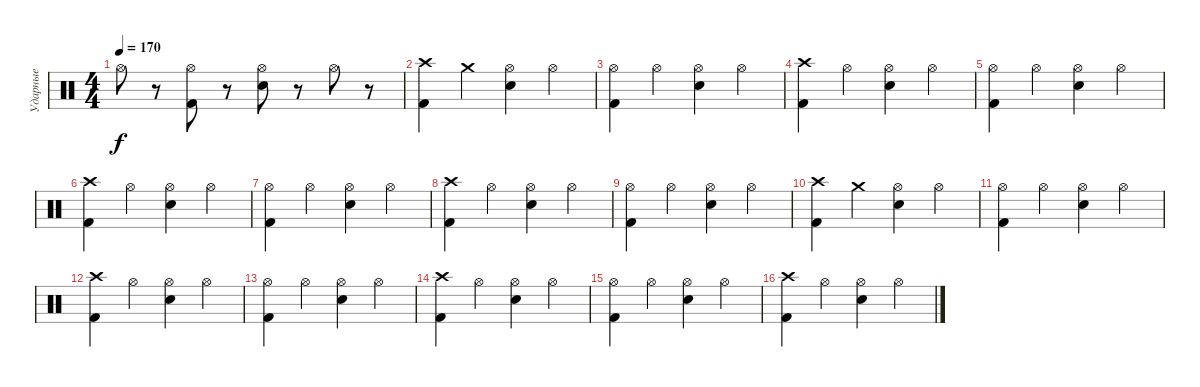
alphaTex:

\track ("Ударные" "Ударные") {instrument percussion}
\staff {score}
\articulation defaults
\ts (4 4)
\tempo 170
\clef neutral
\ks c "Hi-Hat (open)".8{dy f}
r.8 ("Hi-Hat (open)" "Kick (hit) 2").8 r.8 ("Hi-Hat (open)" "Electric Snare (hit)").8 r.8 "Hi-Hat (open)".8 r.8 |
("Crash high (hit)" "Kick (hit) 2").4 "Crash medium (hit)".4 ("Hi-Hat (open)" "Electric Snare (hit)").4 "Hi-Hat (open)".4 |
("Hi-Hat (open)" "Kick (hit) 2").4 "Hi-Hat (open)".4 ("Hi-Hat (open)" "Electric Snare (hit)").4 "Hi-Hat (open)".4 |
("Crash high (hit)" "Kick (hit) 2").4 "Hi-Hat (open)".4 ("Hi-Hat (open)" "Electric Snare (hit)").4 "Hi-Hat (open)".4 |
("Hi-Hat (open)" "Kick (hit) 2").4 "Hi-Hat (open)".4 ("Hi-Hat (open)" "Electric Snare (hit)").4 "Hi-Hat (open)".4 |
("Crash high (hit)" "Kick (hit) 2").4 "Hi-Hat (open)".4 ("Hi-Hat (open)" "Electric Snare (hit)").4 "Hi-Hat (open)".4 |
("Hi-Hat (open)" "Kick (hit) 2").4 "Hi-Hat (open)".4 ("Hi-Hat (open)" "Electric Snare (hit)").4 "Hi-Hat (open)".4 |
("Crash high (hit)" "Kick (hit) 2").4 "Hi-Hat (open)".4 ("Hi-Hat (open)" "Electric Snare (hit)").4 "Hi-Hat (open)".4 |
("Hi-Hat (open)" "Kick (hit) 2").4 "Hi-Hat (open)".4 ("Hi-Hat (open)" "Electric Snare (hit)").4 "Hi-Hat (open)".4 |
("Crash high (hit)" "Kick (hit) 2").4 "Crash medium (hit)".4 ("Hi-Hat (open)" "Electric Snare (hit)").4 "Hi-Hat (open)".4 |
("Hi-Hat (open)" "Kick (hit) 2").4 "Hi-Hat (open)".4 ("Hi-Hat (open)" "Electric Snare (hit)").4 "Hi-Hat (open)".4 |
("Crash high (hit)" "Kick (hit) 2").4 "Hi-Hat (open)".4 ("Hi-Hat (open)" "Electric Snare (hit)").4 "Hi-Hat (open)".4 |
("Hi-Hat (open)" "Kick (hit) 2").4 "Hi-Hat (open)".4 ("Hi-Hat (open)" "Electric Snare (hit)").4 "Hi-Hat (open)".4 |
("Crash high (hit)" "Kick (hit) 2").4 "Hi-Hat (open)".4 ("Hi-Hat (open)" "Electric Snare (hit)").4 "Hi-Hat (open)".4 |
("Hi-Hat (open)" "Kick (hit) 2").4 "Hi-Hat (open)".4 ("Hi-Hat (open)" "Electric Snare (hit)").4 "Hi-Hat (open)".4 |
("Crash high (hit)" "Kick (hit) 2").4 "Hi-Hat (open)".4 ("Hi-Hat (open)" "Electric Snare (hit)").4 "Hi-Hat (open)".4
